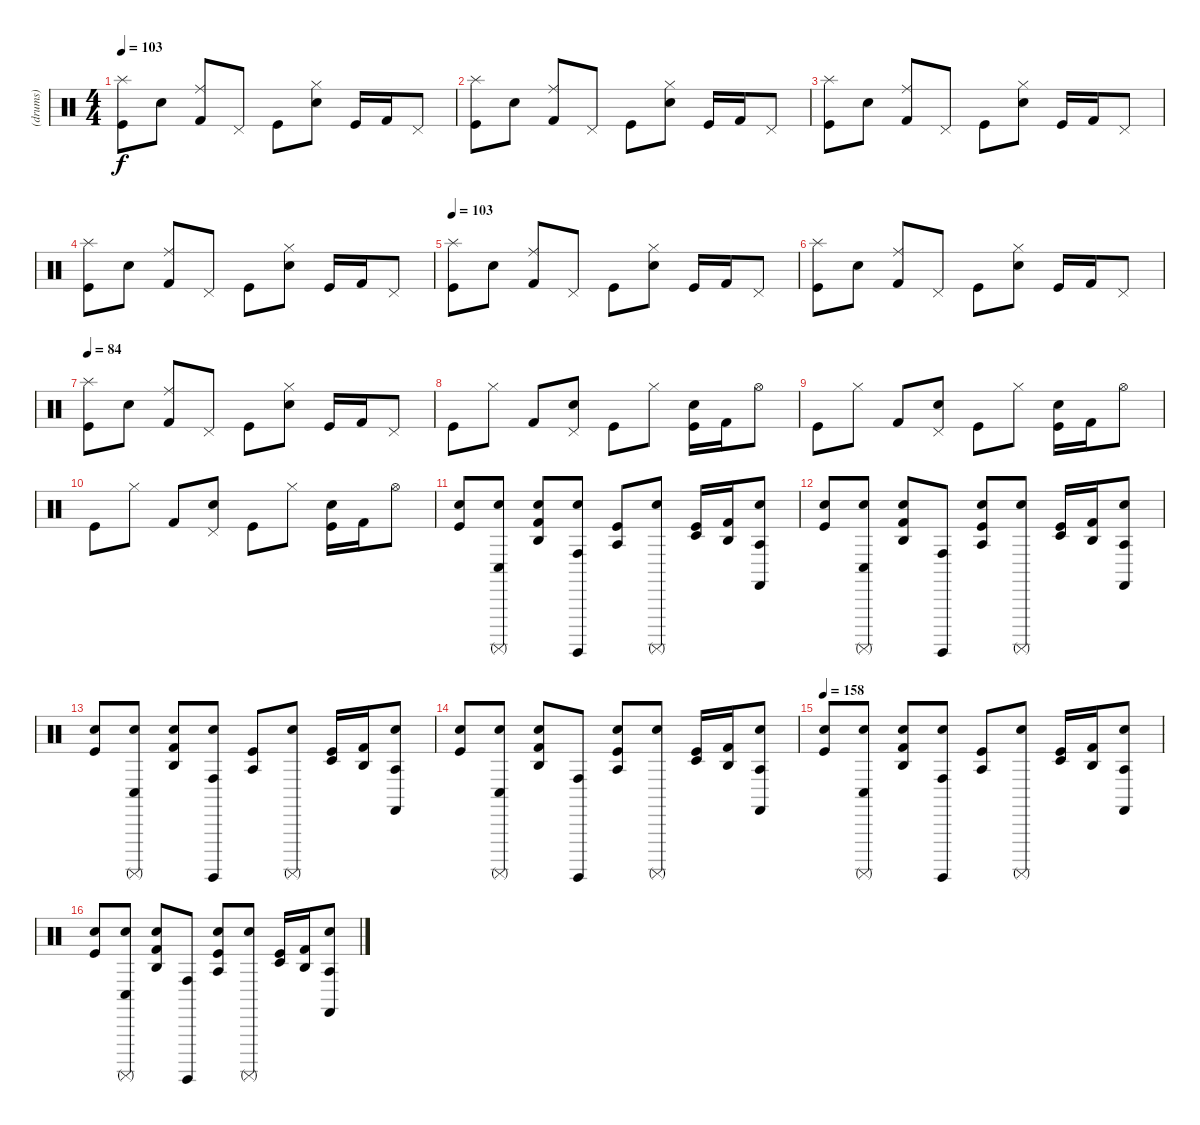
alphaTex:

\track ("(drums)" "(drums)") {instrument percussion}
\staff {score}
\articulation defaults
\ts (4 4)
\tempo 103
\clef neutral
\ks c
("Splash (hit)" "Kick (hit)").8{dy f} "Electric Snare (hit)".8 ("Ride (middle)" "Kick (hit) 2").8 "Pedal Hi-Hat (hit)".8 "Kick (hit)".8 ("Hi-Hat (closed)" "Electric Snare (hit)").8 "Kick (hit)".16 "Kick (hit) 2".16 "Pedal Hi-Hat (hit)".8 |
("Splash (hit)" "Kick (hit)").8 "Electric Snare (hit)".8 ("Ride (middle)" "Kick (hit) 2").8 "Pedal Hi-Hat (hit)".8 "Kick (hit)".8 ("Hi-Hat (closed)" "Electric Snare (hit)").8 "Kick (hit)".16 "Kick (hit) 2".16 "Pedal Hi-Hat (hit)".8 |
("Splash (hit)" "Kick (hit)").8 "Electric Snare (hit)".8 ("Ride (middle)" "Kick (hit) 2").8 "Pedal Hi-Hat (hit)".8 "Kick (hit)".8 ("Hi-Hat (closed)" "Electric Snare (hit)").8 "Kick (hit)".16 "Kick (hit) 2".16 "Pedal Hi-Hat (hit)".8 |
("Splash (hit)" "Kick (hit)").8 "Electric Snare (hit)".8 ("Ride (middle)" "Kick (hit) 2").8 "Pedal Hi-Hat (hit)".8 "Kick (hit)".8 ("Hi-Hat (closed)" "Electric Snare (hit)").8 "Kick (hit)".16 "Kick (hit) 2".16 "Pedal Hi-Hat (hit)".8 |
\tempo 103
("Splash (hit)" "Kick (hit)").8 "Electric Snare (hit)".8 ("Ride (middle)" "Kick (hit) 2").8 "Pedal Hi-Hat (hit)".8 "Kick (hit)".8 ("Hi-Hat (closed)" "Electric Snare (hit)").8 "Kick (hit)".16 "Kick (hit) 2".16 "Pedal Hi-Hat (hit)".8 |
("Splash (hit)" "Kick (hit)").8 "Electric Snare (hit)".8 ("Ride (middle)" "Kick (hit) 2").8 "Pedal Hi-Hat (hit)".8 "Kick (hit)".8 ("Hi-Hat (closed)" "Electric Snare (hit)").8 "Kick (hit)".16 "Kick (hit) 2".16 "Pedal Hi-Hat (hit)".8 |
\tempo 84
("Splash (hit)" "Kick (hit)").8 "Electric Snare (hit)".8 ("Ride (middle)" "Kick (hit) 2").8 "Pedal Hi-Hat (hit)".8 "Kick (hit)".8 ("Hi-Hat (closed)" "Electric Snare (hit)").8 "Kick (hit)".16 "Kick (hit) 2".16 "Pedal Hi-Hat (hit)".8 |
"Kick (hit)".8 "Hi-Hat (closed)".8 "Kick (hit) 2".8 ("Pedal Hi-Hat (hit)" "Electric Snare (hit)").8 "Kick (hit)".8 "Hi-Hat (closed)".8 ("Electric Snare (hit)" "Kick (hit)").16 "Kick (hit) 2".16 "Hi-Hat (open)".8 |
"Kick (hit)".8 "Hi-Hat (closed)".8 "Kick (hit) 2".8 ("Pedal Hi-Hat (hit)" "Electric Snare (hit)").8 "Kick (hit)".8 "Hi-Hat (closed)".8 ("Electric Snare (hit)" "Kick (hit)").16 "Kick (hit) 2".16 "Hi-Hat (open)".8 |
"Kick (hit)".8 "Hi-Hat (closed)".8 "Kick (hit) 2".8 ("Pedal Hi-Hat (hit)" "Electric Snare (hit)").8 "Kick (hit)".8 "Hi-Hat (closed)".8 ("Electric Snare (hit)" "Kick (hit)").16 "Kick (hit) 2".16 "Hi-Hat (open)".8 |
("Electric Snare (hit)" "Kick (hit)").8 ("Electric Snare (hit)" "Conga low (hit)" "Surdo (mute)").8 ("Electric Snare (hit)" "Agogo high (hit)" "Kick (hit) 2").8 ("Electric Snare (hit)" "Conga high (hit)" "Surdo (hit)").8 ("Agogo tow (hit)" "Kick (hit)").8 ("Electric Snare (hit)" "Surdo (mute)").8 ("Timbale low (hit)" "Kick (hit)").16 ("Agogo high (hit)" "Kick (hit) 2").16 ("Electric Snare (hit)" "Agogo tow (hit)" "Castanets (hit)").8 |
("Electric Snare (hit)" "Kick (hit)").8 ("Electric Snare (hit)" "Conga low (hit)" "Surdo (mute)").8 ("Electric Snare (hit)" "Agogo high (hit)" "Kick (hit) 2").8 ("Conga high (hit)" "Surdo (hit)").8 ("Electric Snare (hit)" "Agogo tow (hit)" "Kick (hit)").8 ("Electric Snare (hit)" "Surdo (mute)").8 ("Timbale low (hit)" "Kick (hit)").16 ("Agogo high (hit)" "Kick (hit) 2").16 ("Electric Snare (hit)" "Agogo tow (hit)" "Castanets (hit)").8 |
("Electric Snare (hit)" "Kick (hit)").8 ("Electric Snare (hit)" "Conga low (hit)" "Surdo (mute)").8 ("Electric Snare (hit)" "Agogo high (hit)" "Kick (hit) 2").8 ("Electric Snare (hit)" "Conga high (hit)" "Surdo (hit)").8 ("Agogo tow (hit)" "Kick (hit)").8 ("Electric Snare (hit)" "Surdo (mute)").8 ("Timbale low (hit)" "Kick (hit)").16 ("Agogo high (hit)" "Kick (hit) 2").16 ("Electric Snare (hit)" "Agogo tow (hit)" "Castanets (hit)").8 |
("Electric Snare (hit)" "Kick (hit)").8 ("Electric Snare (hit)" "Conga low (hit)" "Surdo (mute)").8 ("Electric Snare (hit)" "Agogo high (hit)" "Kick (hit) 2").8 ("Conga high (hit)" "Surdo (hit)").8 ("Electric Snare (hit)" "Agogo tow (hit)" "Kick (hit)").8 ("Electric Snare (hit)" "Surdo (mute)").8 ("Timbale low (hit)" "Kick (hit)").16 ("Agogo high (hit)" "Kick (hit) 2").16 ("Electric Snare (hit)" "Agogo tow (hit)" "Castanets (hit)").8 |
\tempo 158
("Electric Snare (hit)" "Kick (hit)").8 ("Electric Snare (hit)" "Conga low (hit)" "Surdo (mute)").8 ("Electric Snare (hit)" "Agogo high (hit)" "Kick (hit) 2").8 ("Electric Snare (hit)" "Conga high (hit)" "Surdo (hit)").8 ("Agogo tow (hit)" "Kick (hit)").8 ("Electric Snare (hit)" "Surdo (mute)").8 ("Timbale low (hit)" "Kick (hit)").16 ("Agogo high (hit)" "Kick (hit) 2").16 ("Electric Snare (hit)" "Agogo tow (hit)" "Castanets (hit)").8 |
("Electric Snare (hit)" "Kick (hit)").8 ("Electric Snare (hit)" "Conga low (hit)" "Surdo (mute)").8 ("Electric Snare (hit)" "Agogo high (hit)" "Kick (hit) 2").8 ("Conga high (hit)" "Surdo (hit)").8 ("Electric Snare (hit)" "Agogo tow (hit)" "Kick (hit)").8 ("Electric Snare (hit)" "Surdo (mute)").8 ("Timbale low (hit)" "Kick (hit)").16 ("Agogo high (hit)" "Kick (hit) 2").16 ("Electric Snare (hit)" "Agogo tow (hit)" "Castanets (hit)").8
